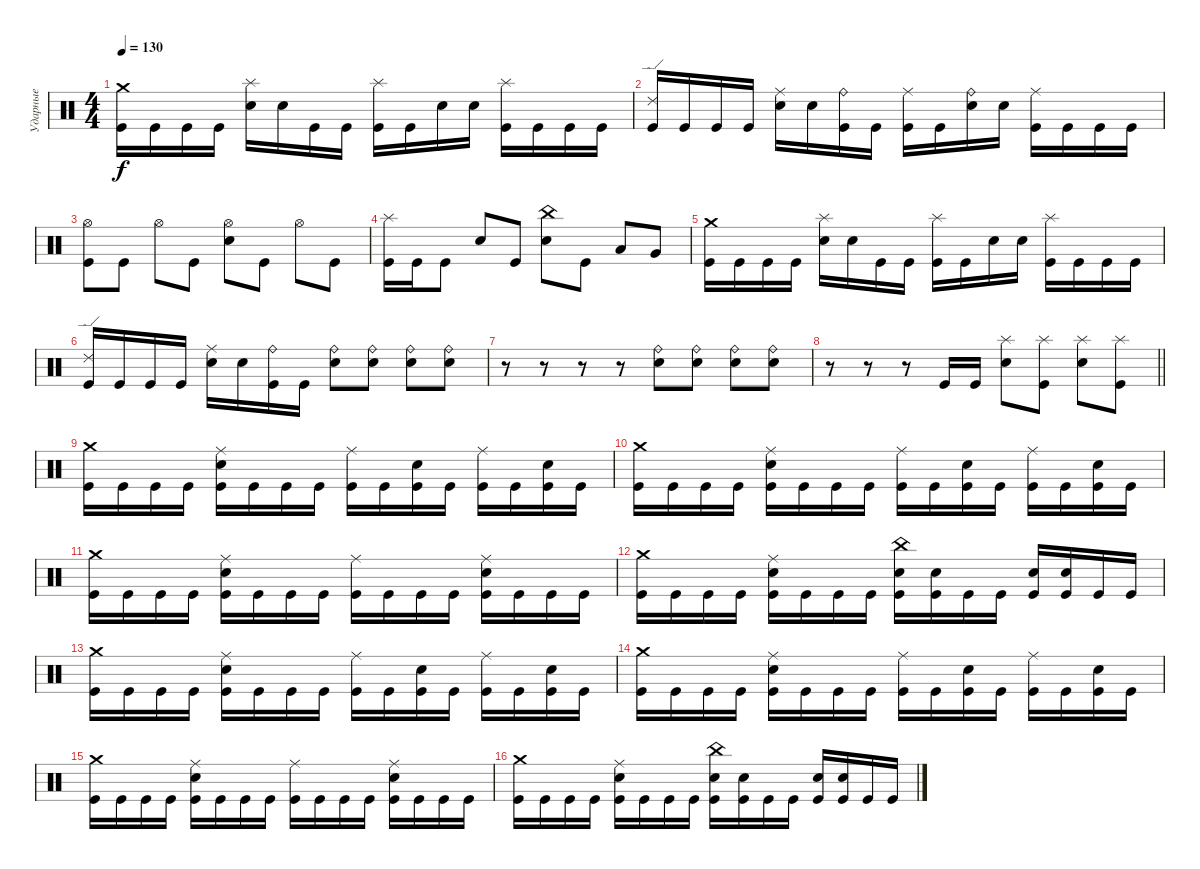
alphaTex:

\track ("Ударные" "Ударные") {instrument percussion}
\staff {score}
\articulation defaults
\ts (4 4)
\tempo 130
\clef neutral
\ks c
("Crash medium (hit)" "Kick (hit)").16{dy f} "Kick (hit)".16 "Kick (hit)".16 "Kick (hit)".16 ("Splash (hit)" "Electric Snare (hit)").16 "Electric Snare (hit)".16 "Kick (hit)".16 "Kick (hit)".16 ("Splash (hit)" "Kick (hit)").16 "Kick (hit)".16 "Electric Snare (hit)".16 "Electric Snare (hit)".16 ("Splash (hit)" "Kick (hit)").16 "Kick (hit)".16 "Kick (hit)".16 "Kick (hit)".16 |
("Ride (edge) 2" "Kick (hit)").16 "Kick (hit)".16 "Kick (hit)".16 "Kick (hit)".16 ("Ride (middle)" "Electric Snare (hit)").16 "Electric Snare (hit)".16 ("Ride (bell)" "Kick (hit)").16 "Kick (hit)".16 ("Ride (middle)" "Kick (hit)").16 "Kick (hit)".16 ("Ride (bell)" "Electric Snare (hit)").16 "Electric Snare (hit)".16 ("Ride (middle)" "Kick (hit)").16 "Kick (hit)".16 "Kick (hit)".16 "Kick (hit)".16 |
("Hi-Hat (open)" "Kick (hit)").8 "Kick (hit)".8 "Hi-Hat (open)".8 "Kick (hit)".8 ("Hi-Hat (open)" "Electric Snare (hit)").8 "Kick (hit)".8 "Hi-Hat (open)".8 "Kick (hit)".8 |
("Splash (hit)" "Kick (hit)").16 "Kick (hit)".16 "Kick (hit)".8 "Electric Snare (hit)".8 "Kick (hit)".8 ("China (hit)" "Electric Snare (hit)").8 "Kick (hit)".8 "Low Tom (hit)".8 "Very Low Tom (hit)".8 |
("Crash medium (hit)" "Kick (hit)").16 "Kick (hit)".16 "Kick (hit)".16 "Kick (hit)".16 ("Splash (hit)" "Electric Snare (hit)").16 "Electric Snare (hit)".16 "Kick (hit)".16 "Kick (hit)".16 ("Splash (hit)" "Kick (hit)").16 "Kick (hit)".16 "Electric Snare (hit)".16 "Electric Snare (hit)".16 ("Splash (hit)" "Kick (hit)").16 "Kick (hit)".16 "Kick (hit)".16 "Kick (hit)".16 |
("Ride (edge) 2" "Kick (hit)").16 "Kick (hit)".16 "Kick (hit)".16 "Kick (hit)".16 ("Ride (middle)" "Electric Snare (hit)").16 "Electric Snare (hit)".16 ("Ride (bell)" "Kick (hit)").16 "Kick (hit)".16 ("Ride (bell)" "Electric Snare (hit)").8 ("Ride (bell)" "Electric Snare (hit)").8 ("Ride (bell)" "Electric Snare (hit)").8 ("Ride (bell)" "Electric Snare (hit)").8 |
r.8 r.8 r.8 r.8 ("Ride (bell)" "Electric Snare (hit)").8 ("Ride (bell)" "Electric Snare (hit)").8 ("Ride (bell)" "Electric Snare (hit)").8 ("Ride (bell)" "Electric Snare (hit)").8 |
\barLineRight lightlight
r.8 r.8 r.8 "Kick (hit)".16 "Kick (hit)".16 ("Splash (hit)" "Electric Snare (hit)").8 ("Splash (hit)" "Kick (hit)").8 ("Splash (hit)" "Electric Snare (hit)").8 ("Splash (hit)" "Kick (hit)").8 |
\section ("" " ")
("Crash medium (hit)" "Kick (hit)").16 "Kick (hit)".16 "Kick (hit)".16 "Kick (hit)".16 ("Ride (middle)" "Electric Snare (hit)" "Kick (hit)").16 "Kick (hit)".16 "Kick (hit)".16 "Kick (hit)".16 ("Ride (middle)" "Kick (hit)").16 "Kick (hit)".16 ("Electric Snare (hit)" "Kick (hit)").16 "Kick (hit)".16 ("Ride (middle)" "Kick (hit)").16 "Kick (hit)".16 ("Electric Snare (hit)" "Kick (hit)").16 "Kick (hit)".16 |
("Crash medium (hit)" "Kick (hit)").16 "Kick (hit)".16 "Kick (hit)".16 "Kick (hit)".16 ("Ride (middle)" "Electric Snare (hit)" "Kick (hit)").16 "Kick (hit)".16 "Kick (hit)".16 "Kick (hit)".16 ("Ride (middle)" "Kick (hit)").16 "Kick (hit)".16 ("Electric Snare (hit)" "Kick (hit)").16 "Kick (hit)".16 ("Ride (middle)" "Kick (hit)").16 "Kick (hit)".16 ("Electric Snare (hit)" "Kick (hit)").16 "Kick (hit)".16 |
("Crash medium (hit)" "Kick (hit)").16 "Kick (hit)".16 "Kick (hit)".16 "Kick (hit)".16 ("Ride (middle)" "Electric Snare (hit)" "Kick (hit)").16 "Kick (hit)".16 "Kick (hit)".16 "Kick (hit)".16 ("Ride (middle)" "Kick (hit)").16 "Kick (hit)".16 "Kick (hit)".16 "Kick (hit)".16 ("Ride (middle)" "Electric Snare (hit)" "Kick (hit)").16 "Kick (hit)".16 "Kick (hit)".16 "Kick (hit)".16 |
("Crash medium (hit)" "Kick (hit)").16 "Kick (hit)".16 "Kick (hit)".16 "Kick (hit)".16 ("Ride (middle)" "Electric Snare (hit)" "Kick (hit)").16 "Kick (hit)".16 "Kick (hit)".16 "Kick (hit)".16 ("China (hit)" "Electric Snare (hit)" "Kick (hit)").16 ("Electric Snare (hit)" "Kick (hit)").16 "Kick (hit)".16 "Kick (hit)".16 ("Electric Snare (hit)" "Kick (hit)").16 ("Electric Snare (hit)" "Kick (hit)").16 "Kick (hit)".16 "Kick (hit)".16 |
("Crash medium (hit)" "Kick (hit)").16 "Kick (hit)".16 "Kick (hit)".16 "Kick (hit)".16 ("Ride (middle)" "Electric Snare (hit)" "Kick (hit)").16 "Kick (hit)".16 "Kick (hit)".16 "Kick (hit)".16 ("Ride (middle)" "Kick (hit)").16 "Kick (hit)".16 ("Electric Snare (hit)" "Kick (hit)").16 "Kick (hit)".16 ("Ride (middle)" "Kick (hit)").16 "Kick (hit)".16 ("Electric Snare (hit)" "Kick (hit)").16 "Kick (hit)".16 |
("Crash medium (hit)" "Kick (hit)").16 "Kick (hit)".16 "Kick (hit)".16 "Kick (hit)".16 ("Ride (middle)" "Electric Snare (hit)" "Kick (hit)").16 "Kick (hit)".16 "Kick (hit)".16 "Kick (hit)".16 ("Ride (middle)" "Kick (hit)").16 "Kick (hit)".16 ("Electric Snare (hit)" "Kick (hit)").16 "Kick (hit)".16 ("Ride (middle)" "Kick (hit)").16 "Kick (hit)".16 ("Electric Snare (hit)" "Kick (hit)").16 "Kick (hit)".16 |
("Crash medium (hit)" "Kick (hit)").16 "Kick (hit)".16 "Kick (hit)".16 "Kick (hit)".16 ("Ride (middle)" "Electric Snare (hit)" "Kick (hit)").16 "Kick (hit)".16 "Kick (hit)".16 "Kick (hit)".16 ("Ride (middle)" "Kick (hit)").16 "Kick (hit)".16 "Kick (hit)".16 "Kick (hit)".16 ("Ride (middle)" "Electric Snare (hit)" "Kick (hit)").16 "Kick (hit)".16 "Kick (hit)".16 "Kick (hit)".16 |
("Crash medium (hit)" "Kick (hit)").16 "Kick (hit)".16 "Kick (hit)".16 "Kick (hit)".16 ("Ride (middle)" "Electric Snare (hit)" "Kick (hit)").16 "Kick (hit)".16 "Kick (hit)".16 "Kick (hit)".16 ("China (hit)" "Electric Snare (hit)" "Kick (hit)").16 ("Electric Snare (hit)" "Kick (hit)").16 "Kick (hit)".16 "Kick (hit)".16 ("Electric Snare (hit)" "Kick (hit)").16 ("Electric Snare (hit)" "Kick (hit)").16 "Kick (hit)".16 "Kick (hit)".16
